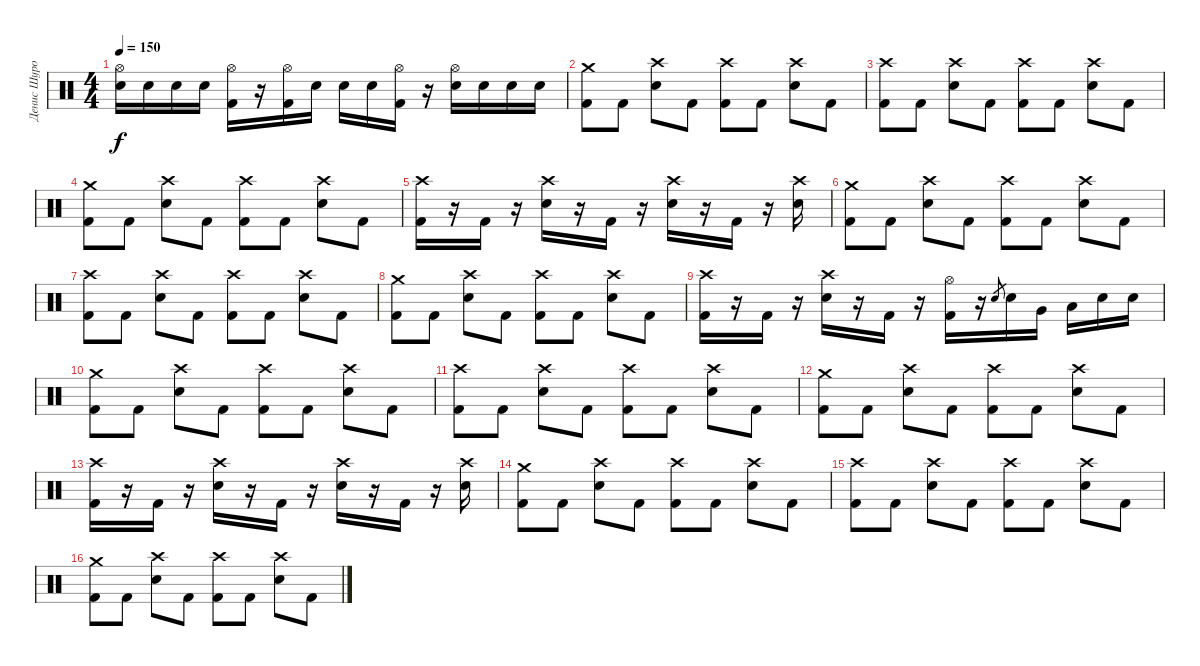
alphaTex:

\track ("Денис Шуров" "Денис Шуро") {instrument percussion}
\staff {score}
\articulation defaults
\ts (4 4)
\tempo 150
\clef neutral
\ks c
("Hi-Hat (open)" "Electric Snare (hit)").16{dy f} "Electric Snare (hit)".16 "Electric Snare (hit)".16 "Electric Snare (hit)".16 ("Hi-Hat (open)" "Kick (hit) 2").16 r.16 ("Hi-Hat (open)" "Kick (hit) 2").16 "Electric Snare (hit)".16 "Electric Snare (hit)".16 "Electric Snare (hit)".16 ("Hi-Hat (open)" "Kick (hit) 2").16 r.16 ("Hi-Hat (open)" "Electric Snare (hit)").16 "Electric Snare (hit)".16 "Electric Snare (hit)".16 "Electric Snare (hit)".16 |
("Crash medium (hit)" "Kick (hit) 2").8 "Kick (hit) 2".8 ("Crash high (hit)" "Electric Snare (hit)").8 "Kick (hit) 2".8 ("Crash high (hit)" "Kick (hit) 2").8 "Kick (hit) 2".8 ("Crash high (hit)" "Electric Snare (hit)").8 "Kick (hit) 2".8 |
("Crash high (hit)" "Kick (hit) 2").8 "Kick (hit) 2".8 ("Crash high (hit)" "Electric Snare (hit)").8 "Kick (hit) 2".8 ("Crash high (hit)" "Kick (hit) 2").8 "Kick (hit) 2".8 ("Crash high (hit)" "Electric Snare (hit)").8 "Kick (hit) 2".8 |
("Crash medium (hit)" "Kick (hit) 2").8 "Kick (hit) 2".8 ("Crash high (hit)" "Electric Snare (hit)").8 "Kick (hit) 2".8 ("Crash high (hit)" "Kick (hit) 2").8 "Kick (hit) 2".8 ("Crash high (hit)" "Electric Snare (hit)").8 "Kick (hit) 2".8 |
("Crash high (hit)" "Kick (hit) 2").16 r.16 "Kick (hit) 2".16 r.16 ("Crash high (hit)" "Electric Snare (hit)").16 r.16 "Kick (hit) 2".16 r.16 ("Crash high (hit)" "Electric Snare (hit)").16 r.16 "Kick (hit) 2".16 r.16 ("Crash high (hit)" "Electric Snare (hit)").16 |
("Crash medium (hit)" "Kick (hit) 2").8 "Kick (hit) 2".8 ("Crash high (hit)" "Electric Snare (hit)").8 "Kick (hit) 2".8 ("Crash high (hit)" "Kick (hit) 2").8 "Kick (hit) 2".8 ("Crash high (hit)" "Electric Snare (hit)").8 "Kick (hit) 2".8 |
("Crash high (hit)" "Kick (hit) 2").8 "Kick (hit) 2".8 ("Crash high (hit)" "Electric Snare (hit)").8 "Kick (hit) 2".8 ("Crash high (hit)" "Kick (hit) 2").8 "Kick (hit) 2".8 ("Crash high (hit)" "Electric Snare (hit)").8 "Kick (hit) 2".8 |
("Crash medium (hit)" "Kick (hit) 2").8 "Kick (hit) 2".8 ("Crash high (hit)" "Electric Snare (hit)").8 "Kick (hit) 2".8 ("Crash high (hit)" "Kick (hit) 2").8 "Kick (hit) 2".8 ("Crash high (hit)" "Electric Snare (hit)").8 "Kick (hit) 2".8 |
("Crash high (hit)" "Kick (hit) 2").16 r.16 "Kick (hit) 2".16 r.16 ("Crash high (hit)" "Electric Snare (hit)").16 r.16 "Kick (hit) 2".16 r.16 ("Hi-Hat (open)" "Kick (hit) 2").16 r.16 "Electric Snare (hit)".8{gr} "Electric Snare (hit)".16 "Very Low Tom (hit)".16 "Low Tom (hit)".16 "Electric Snare (hit)".16 "Electric Snare (hit)".16 |
("Crash medium (hit)" "Kick (hit) 2").8 "Kick (hit) 2".8 ("Crash high (hit)" "Electric Snare (hit)").8 "Kick (hit) 2".8 ("Crash high (hit)" "Kick (hit) 2").8 "Kick (hit) 2".8 ("Crash high (hit)" "Electric Snare (hit)").8 "Kick (hit) 2".8 |
("Crash high (hit)" "Kick (hit) 2").8 "Kick (hit) 2".8 ("Crash high (hit)" "Electric Snare (hit)").8 "Kick (hit) 2".8 ("Crash high (hit)" "Kick (hit) 2").8 "Kick (hit) 2".8 ("Crash high (hit)" "Electric Snare (hit)").8 "Kick (hit) 2".8 |
("Crash medium (hit)" "Kick (hit) 2").8 "Kick (hit) 2".8 ("Crash high (hit)" "Electric Snare (hit)").8 "Kick (hit) 2".8 ("Crash high (hit)" "Kick (hit) 2").8 "Kick (hit) 2".8 ("Crash high (hit)" "Electric Snare (hit)").8 "Kick (hit) 2".8 |
("Crash high (hit)" "Kick (hit) 2").16 r.16 "Kick (hit) 2".16 r.16 ("Crash high (hit)" "Electric Snare (hit)").16 r.16 "Kick (hit) 2".16 r.16 ("Crash high (hit)" "Electric Snare (hit)").16 r.16 "Kick (hit) 2".16 r.16 ("Crash high (hit)" "Electric Snare (hit)").16 |
("Crash medium (hit)" "Kick (hit) 2").8 "Kick (hit) 2".8 ("Crash high (hit)" "Electric Snare (hit)").8 "Kick (hit) 2".8 ("Crash high (hit)" "Kick (hit) 2").8 "Kick (hit) 2".8 ("Crash high (hit)" "Electric Snare (hit)").8 "Kick (hit) 2".8 |
("Crash high (hit)" "Kick (hit) 2").8 "Kick (hit) 2".8 ("Crash high (hit)" "Electric Snare (hit)").8 "Kick (hit) 2".8 ("Crash high (hit)" "Kick (hit) 2").8 "Kick (hit) 2".8 ("Crash high (hit)" "Electric Snare (hit)").8 "Kick (hit) 2".8 |
("Crash medium (hit)" "Kick (hit) 2").8 "Kick (hit) 2".8 ("Crash high (hit)" "Electric Snare (hit)").8 "Kick (hit) 2".8 ("Crash high (hit)" "Kick (hit) 2").8 "Kick (hit) 2".8 ("Crash high (hit)" "Electric Snare (hit)").8 "Kick (hit) 2".8
